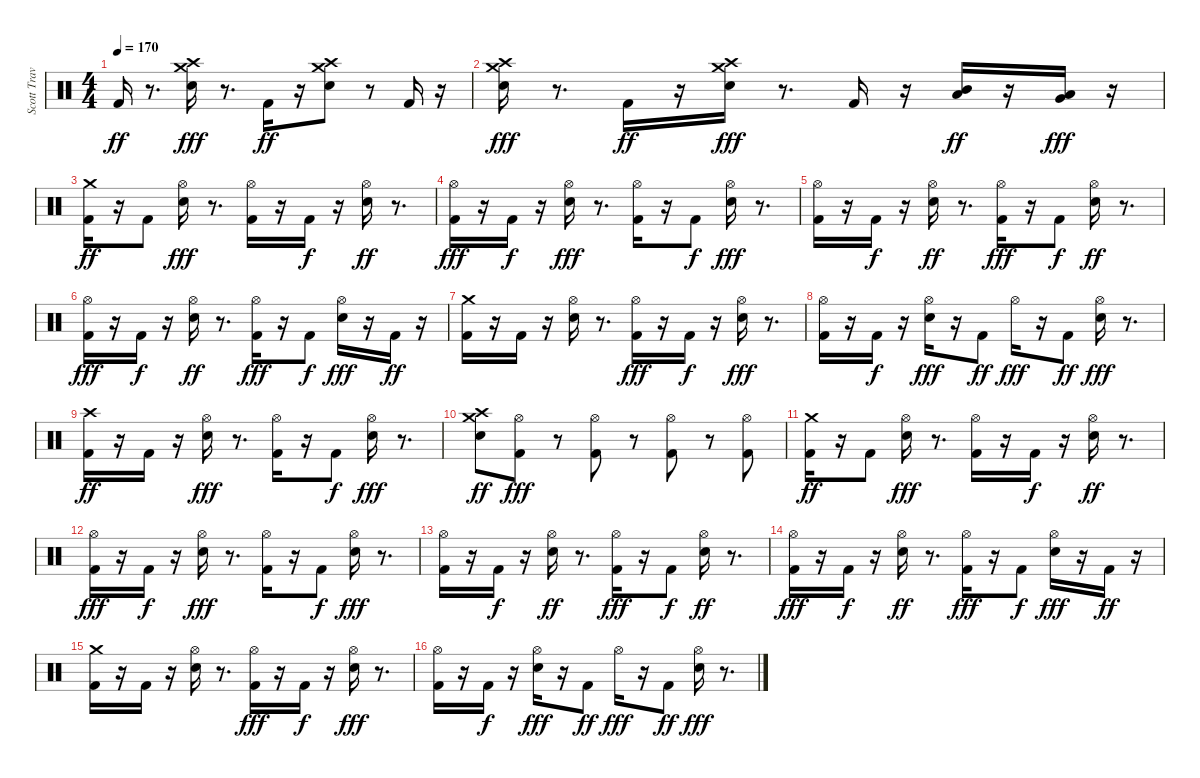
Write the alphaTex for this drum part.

\track ("Scott Travis" "Scott Trav") {instrument percussion}
\staff {score}
\articulation defaults
\ts (4 4)
\tempo 170
\clef neutral
\ks c "Kick (hit) 2".16{dy ff}
r.8{d} ("Snare (hit) 2" "Crash high (hit)" "Crash medium (hit)").16{dy fff} r.8{d} "Kick (hit) 2".16{dy ff} r.16 ("Snare (hit) 2" "Crash high (hit)" "Crash medium (hit)").8 r.8 "Kick (hit) 2".16 r.16 |
("Snare (hit) 2" "Crash high (hit)" "Crash medium (hit)").16{dy fff} r.8{d} "Kick (hit) 2".16{dy ff} r.16 ("Snare (hit) 2" "Crash medium (hit)" "Crash high (hit)").16{dy fff} r.8{d} "Kick (hit) 2".16 r.16 ("Mid Tom (hit)" "Low Tom (hit)").16{dy ff} r.16 ("Very Low Tom (hit)" "Low Tom (hit)").16{dy fff} r.16 |
("Kick (hit) 2" "Crash medium (hit)").16{dy ff} r.16 "Kick (hit) 2".8 ("Hi-Hat (open)" "Snare (hit) 2").16{dy fff} r.8{d} ("Kick (hit) 2" "Hi-Hat (open)").16 r.16 "Kick (hit) 2".16{dy f} r.16 ("Hi-Hat (open)" "Snare (hit) 2").16{dy ff} r.8{d} |
("Hi-Hat (open)" "Kick (hit) 2").16{dy fff} r.16 "Kick (hit) 2".16{dy f} r.16 ("Snare (hit) 2" "Hi-Hat (open)").16{dy fff} r.8{d} ("Kick (hit) 2" "Hi-Hat (open)").16 r.16 "Kick (hit) 2".8{dy f} ("Snare (hit) 2" "Hi-Hat (open)").16{dy fff} r.8{d} |
("Kick (hit) 2" "Hi-Hat (open)").16 r.16 "Kick (hit) 2".16{dy f} r.16 ("Hi-Hat (open)" "Snare (hit) 2").16{dy ff} r.8{d} ("Kick (hit) 2" "Hi-Hat (open)").16{dy fff} r.16 "Kick (hit) 2".8{dy f} ("Hi-Hat (open)" "Snare (hit) 2").16{dy ff} r.8{d} |
("Kick (hit) 2" "Hi-Hat (open)").16{dy fff} r.16 "Kick (hit) 2".16{dy f} r.16 ("Hi-Hat (open)" "Snare (hit) 2").16{dy ff} r.8{d} ("Kick (hit) 2" "Hi-Hat (open)").16{dy fff} r.16 "Kick (hit) 2".8{dy f} ("Snare (hit) 2" "Hi-Hat (open)").16{dy fff} r.16 "Kick (hit) 2".16{dy ff} r.16 |
("Crash medium (hit)" "Kick (hit) 2").16 r.16 "Kick (hit) 2".16 r.16 ("Snare (hit) 2" "Hi-Hat (open)").16 r.8{d} ("Kick (hit) 2" "Hi-Hat (open)").16{dy fff} r.16 "Kick (hit) 2".16{dy f} r.16 ("Snare (hit) 2" "Hi-Hat (open)").16{dy fff} r.8{d} |
("Kick (hit) 2" "Hi-Hat (open)").16 r.16 "Kick (hit) 2".16{dy f} r.16 ("Snare (hit) 2" "Hi-Hat (open)").16{dy fff} r.16 "Kick (hit) 2".8{dy ff} "Hi-Hat (open)".16{dy fff} r.16 "Kick (hit) 2".8{dy ff} ("Snare (hit) 2" "Hi-Hat (open)").16{dy fff} r.8{d} |
("Crash high (hit)" "Kick (hit) 2").16{dy ff} r.16 "Kick (hit) 2".16 r.16 ("Hi-Hat (open)" "Snare (hit) 2").16{dy fff} r.8{d} ("Kick (hit) 2" "Hi-Hat (open)").16 r.16 "Kick (hit) 2".8{dy f} ("Snare (hit) 2" "Hi-Hat (open)").16{dy fff} r.8{d} |
("Snare (hit) 2" "Crash high (hit)" "Crash medium (hit)").8{dy ff} ("Hi-Hat (open)" "Kick (hit) 2").8{dy fff} r.8 ("Hi-Hat (open)" "Kick (hit) 2").8 r.8 ("Hi-Hat (open)" "Kick (hit) 2").8 r.8 ("Hi-Hat (open)" "Kick (hit) 2").8 |
("Kick (hit) 2" "Crash medium (hit)").16{dy ff} r.16 "Kick (hit) 2".8 ("Hi-Hat (open)" "Snare (hit) 2").16{dy fff} r.8{d} ("Kick (hit) 2" "Hi-Hat (open)").16 r.16 "Kick (hit) 2".16{dy f} r.16 ("Hi-Hat (open)" "Snare (hit) 2").16{dy ff} r.8{d} |
("Hi-Hat (open)" "Kick (hit) 2").16{dy fff} r.16 "Kick (hit) 2".16{dy f} r.16 ("Snare (hit) 2" "Hi-Hat (open)").16{dy fff} r.8{d} ("Kick (hit) 2" "Hi-Hat (open)").16 r.16 "Kick (hit) 2".8{dy f} ("Snare (hit) 2" "Hi-Hat (open)").16{dy fff} r.8{d} |
("Kick (hit) 2" "Hi-Hat (open)").16 r.16 "Kick (hit) 2".16{dy f} r.16 ("Hi-Hat (open)" "Snare (hit) 2").16{dy ff} r.8{d} ("Kick (hit) 2" "Hi-Hat (open)").16{dy fff} r.16 "Kick (hit) 2".8{dy f} ("Hi-Hat (open)" "Snare (hit) 2").16{dy ff} r.8{d} |
("Kick (hit) 2" "Hi-Hat (open)").16{dy fff} r.16 "Kick (hit) 2".16{dy f} r.16 ("Hi-Hat (open)" "Snare (hit) 2").16{dy ff} r.8{d} ("Kick (hit) 2" "Hi-Hat (open)").16{dy fff} r.16 "Kick (hit) 2".8{dy f} ("Snare (hit) 2" "Hi-Hat (open)").16{dy fff} r.16 "Kick (hit) 2".16{dy ff} r.16 |
("Crash medium (hit)" "Kick (hit) 2").16 r.16 "Kick (hit) 2".16 r.16 ("Snare (hit) 2" "Hi-Hat (open)").16 r.8{d} ("Kick (hit) 2" "Hi-Hat (open)").16{dy fff} r.16 "Kick (hit) 2".16{dy f} r.16 ("Snare (hit) 2" "Hi-Hat (open)").16{dy fff} r.8{d} |
("Kick (hit) 2" "Hi-Hat (open)").16 r.16 "Kick (hit) 2".16{dy f} r.16 ("Snare (hit) 2" "Hi-Hat (open)").16{dy fff} r.16 "Kick (hit) 2".8{dy ff} "Hi-Hat (open)".16{dy fff} r.16 "Kick (hit) 2".8{dy ff} ("Snare (hit) 2" "Hi-Hat (open)").16{dy fff} r.8{d}
